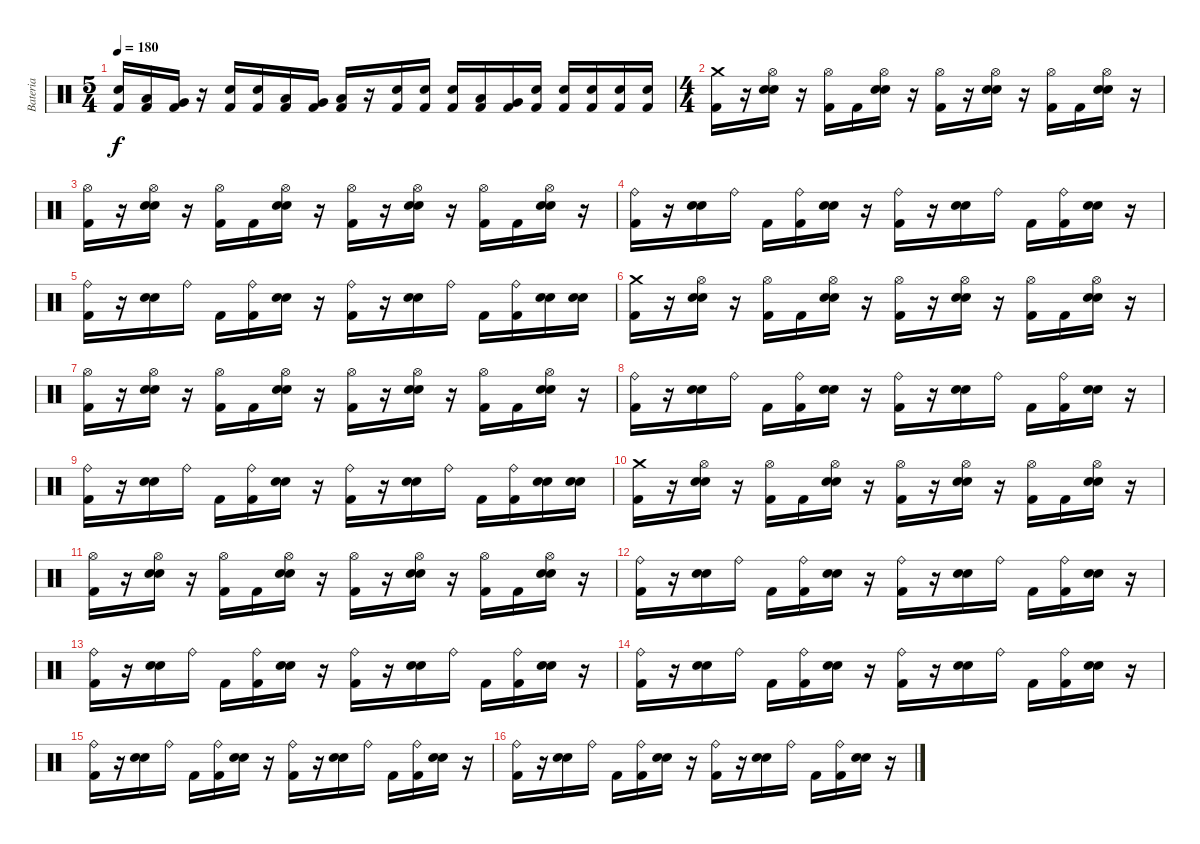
\track ("Bateria" "Bateria") {instrument percussion}
\staff {score}
\articulation defaults
\ts (5 4)
\tempo 180
\clef neutral
\ks c
("Electric Snare (hit)" "Kick (hit) 2").16{dy f} ("Low Tom (hit)" "Kick (hit) 2").16 ("Very Low Tom (hit)" "Kick (hit) 2").16 r.16 ("Electric Snare (hit)" "Kick (hit) 2").16 ("Electric Snare (hit)" "Kick (hit) 2").16 ("Low Tom (hit)" "Kick (hit) 2").16 ("Very Low Tom (hit)" "Kick (hit) 2").16 ("Low Floor Tom (hit)" "Kick (hit) 2").16 r.16 ("Electric Snare (hit)" "Kick (hit) 2").16 ("Electric Snare (hit)" "Kick (hit) 2").16 ("Electric Snare (hit)" "Kick (hit) 2").16 ("Low Tom (hit)" "Kick (hit) 2").16 ("Very Low Tom (hit)" "Kick (hit) 2").16 ("Electric Snare (hit)" "Kick (hit) 2").16 ("Electric Snare (hit)" "Kick (hit) 2").16 ("Electric Snare (hit)" "Kick (hit) 2").16 ("Electric Snare (hit)" "Kick (hit) 2").16 ("Electric Snare (hit)" "Kick (hit) 2").16 |
\ts (4 4)
("Crash medium (hit)" "Kick (hit) 2").16 r.16 ("Hi-Hat (open)" "Electric Snare (hit)" "Snare (hit) 2").16 r.16 ("Hi-Hat (open)" "Kick (hit) 2").16 "Kick (hit) 2".16 ("Hi-Hat (open)" "Electric Snare (hit)" "Snare (hit) 2").16 r.16 ("Hi-Hat (open)" "Kick (hit) 2").16 r.16 ("Hi-Hat (open)" "Electric Snare (hit)" "Snare (hit) 2").16 r.16 ("Hi-Hat (open)" "Kick (hit) 2").16 "Kick (hit) 2".16 ("Hi-Hat (open)" "Electric Snare (hit)" "Snare (hit) 2").16 r.16 |
("Hi-Hat (open)" "Kick (hit) 2").16 r.16 ("Hi-Hat (open)" "Electric Snare (hit)" "Snare (hit) 2").16 r.16 ("Hi-Hat (open)" "Kick (hit) 2").16 "Kick (hit) 2".16 ("Hi-Hat (open)" "Electric Snare (hit)" "Snare (hit) 2").16 r.16 ("Hi-Hat (open)" "Kick (hit) 2").16 r.16 ("Hi-Hat (open)" "Electric Snare (hit)" "Snare (hit) 2").16 r.16 ("Hi-Hat (open)" "Kick (hit) 2").16 "Kick (hit) 2".16 ("Hi-Hat (open)" "Electric Snare (hit)" "Snare (hit) 2").16 r.16 |
("Ride (bell)" "Kick (hit) 2").16 r.16 ("Electric Snare (hit)" "Snare (hit) 2").16 "Ride (bell)".16 "Kick (hit) 2".16 ("Ride (bell)" "Kick (hit) 2").16 ("Electric Snare (hit)" "Snare (hit) 2").16 r.16 ("Ride (bell)" "Kick (hit) 2").16 r.16 ("Electric Snare (hit)" "Snare (hit) 2").16 "Ride (bell)".16 "Kick (hit) 2".16 ("Ride (bell)" "Kick (hit) 2").16 ("Electric Snare (hit)" "Snare (hit) 2").16 r.16 |
("Ride (bell)" "Kick (hit) 2").16 r.16 ("Electric Snare (hit)" "Snare (hit) 2").16 "Ride (bell)".16 "Kick (hit) 2".16 ("Ride (bell)" "Kick (hit) 2").16 ("Electric Snare (hit)" "Snare (hit) 2").16 r.16 ("Ride (bell)" "Kick (hit) 2").16 r.16 ("Electric Snare (hit)" "Snare (hit) 2").16 "Ride (bell)".16 "Kick (hit) 2".16 ("Ride (bell)" "Kick (hit) 2").16 ("Electric Snare (hit)" "Snare (hit) 2").16 ("Electric Snare (hit)" "Snare (hit) 2").16 |
("Crash medium (hit)" "Kick (hit) 2").16 r.16 ("Hi-Hat (open)" "Electric Snare (hit)" "Snare (hit) 2").16 r.16 ("Hi-Hat (open)" "Kick (hit) 2").16 "Kick (hit) 2".16 ("Hi-Hat (open)" "Electric Snare (hit)" "Snare (hit) 2").16 r.16 ("Hi-Hat (open)" "Kick (hit) 2").16 r.16 ("Hi-Hat (open)" "Electric Snare (hit)" "Snare (hit) 2").16 r.16 ("Hi-Hat (open)" "Kick (hit) 2").16 "Kick (hit) 2".16 ("Hi-Hat (open)" "Electric Snare (hit)" "Snare (hit) 2").16 r.16 |
("Hi-Hat (open)" "Kick (hit) 2").16 r.16 ("Hi-Hat (open)" "Electric Snare (hit)" "Snare (hit) 2").16 r.16 ("Hi-Hat (open)" "Kick (hit) 2").16 "Kick (hit) 2".16 ("Hi-Hat (open)" "Electric Snare (hit)" "Snare (hit) 2").16 r.16 ("Hi-Hat (open)" "Kick (hit) 2").16 r.16 ("Hi-Hat (open)" "Electric Snare (hit)" "Snare (hit) 2").16 r.16 ("Hi-Hat (open)" "Kick (hit) 2").16 "Kick (hit) 2".16 ("Hi-Hat (open)" "Electric Snare (hit)" "Snare (hit) 2").16 r.16 |
("Ride (bell)" "Kick (hit) 2").16 r.16 ("Electric Snare (hit)" "Snare (hit) 2").16 "Ride (bell)".16 "Kick (hit) 2".16 ("Ride (bell)" "Kick (hit) 2").16 ("Electric Snare (hit)" "Snare (hit) 2").16 r.16 ("Ride (bell)" "Kick (hit) 2").16 r.16 ("Electric Snare (hit)" "Snare (hit) 2").16 "Ride (bell)".16 "Kick (hit) 2".16 ("Ride (bell)" "Kick (hit) 2").16 ("Electric Snare (hit)" "Snare (hit) 2").16 r.16 |
("Ride (bell)" "Kick (hit) 2").16 r.16 ("Electric Snare (hit)" "Snare (hit) 2").16 "Ride (bell)".16 "Kick (hit) 2".16 ("Ride (bell)" "Kick (hit) 2").16 ("Electric Snare (hit)" "Snare (hit) 2").16 r.16 ("Ride (bell)" "Kick (hit) 2").16 r.16 ("Electric Snare (hit)" "Snare (hit) 2").16 "Ride (bell)".16 "Kick (hit) 2".16 ("Ride (bell)" "Kick (hit) 2").16 ("Electric Snare (hit)" "Snare (hit) 2").16 ("Electric Snare (hit)" "Snare (hit) 2").16 |
("Crash medium (hit)" "Kick (hit) 2").16 r.16 ("Hi-Hat (open)" "Electric Snare (hit)" "Snare (hit) 2").16 r.16 ("Hi-Hat (open)" "Kick (hit) 2").16 "Kick (hit) 2".16 ("Hi-Hat (open)" "Electric Snare (hit)" "Snare (hit) 2").16 r.16 ("Hi-Hat (open)" "Kick (hit) 2").16 r.16 ("Hi-Hat (open)" "Electric Snare (hit)" "Snare (hit) 2").16 r.16 ("Hi-Hat (open)" "Kick (hit) 2").16 "Kick (hit) 2".16 ("Hi-Hat (open)" "Electric Snare (hit)" "Snare (hit) 2").16 r.16 |
("Hi-Hat (open)" "Kick (hit) 2").16 r.16 ("Hi-Hat (open)" "Electric Snare (hit)" "Snare (hit) 2").16 r.16 ("Hi-Hat (open)" "Kick (hit) 2").16 "Kick (hit) 2".16 ("Hi-Hat (open)" "Electric Snare (hit)" "Snare (hit) 2").16 r.16 ("Hi-Hat (open)" "Kick (hit) 2").16 r.16 ("Hi-Hat (open)" "Electric Snare (hit)" "Snare (hit) 2").16 r.16 ("Hi-Hat (open)" "Kick (hit) 2").16 "Kick (hit) 2".16 ("Hi-Hat (open)" "Electric Snare (hit)" "Snare (hit) 2").16 r.16 |
("Ride (bell)" "Kick (hit) 2").16 r.16 ("Electric Snare (hit)" "Snare (hit) 2").16 "Ride (bell)".16 "Kick (hit) 2".16 ("Ride (bell)" "Kick (hit) 2").16 ("Electric Snare (hit)" "Snare (hit) 2").16 r.16 ("Ride (bell)" "Kick (hit) 2").16 r.16 ("Electric Snare (hit)" "Snare (hit) 2").16 "Ride (bell)".16 "Kick (hit) 2".16 ("Ride (bell)" "Kick (hit) 2").16 ("Electric Snare (hit)" "Snare (hit) 2").16 r.16 |
("Ride (bell)" "Kick (hit) 2").16 r.16 ("Electric Snare (hit)" "Snare (hit) 2").16 "Ride (bell)".16 "Kick (hit) 2".16 ("Ride (bell)" "Kick (hit) 2").16 ("Electric Snare (hit)" "Snare (hit) 2").16 r.16 ("Ride (bell)" "Kick (hit) 2").16 r.16 ("Electric Snare (hit)" "Snare (hit) 2").16 "Ride (bell)".16 "Kick (hit) 2".16 ("Ride (bell)" "Kick (hit) 2").16 ("Electric Snare (hit)" "Snare (hit) 2").16 r.16 |
("Ride (bell)" "Kick (hit) 2").16 r.16 ("Electric Snare (hit)" "Snare (hit) 2").16 "Ride (bell)".16 "Kick (hit) 2".16 ("Ride (bell)" "Kick (hit) 2").16 ("Electric Snare (hit)" "Snare (hit) 2").16 r.16 ("Ride (bell)" "Kick (hit) 2").16 r.16 ("Electric Snare (hit)" "Snare (hit) 2").16 "Ride (bell)".16 "Kick (hit) 2".16 ("Ride (bell)" "Kick (hit) 2").16 ("Electric Snare (hit)" "Snare (hit) 2").16 r.16 |
("Ride (bell)" "Kick (hit) 2").16 r.16 ("Electric Snare (hit)" "Snare (hit) 2").16 "Ride (bell)".16 "Kick (hit) 2".16 ("Ride (bell)" "Kick (hit) 2").16 ("Electric Snare (hit)" "Snare (hit) 2").16 r.16 ("Ride (bell)" "Kick (hit) 2").16 r.16 ("Electric Snare (hit)" "Snare (hit) 2").16 "Ride (bell)".16 "Kick (hit) 2".16 ("Ride (bell)" "Kick (hit) 2").16 ("Electric Snare (hit)" "Snare (hit) 2").16 r.16 |
("Ride (bell)" "Kick (hit) 2").16 r.16 ("Electric Snare (hit)" "Snare (hit) 2").16 "Ride (bell)".16 "Kick (hit) 2".16 ("Ride (bell)" "Kick (hit) 2").16 ("Electric Snare (hit)" "Snare (hit) 2").16 r.16 ("Ride (bell)" "Kick (hit) 2").16 r.16 ("Electric Snare (hit)" "Snare (hit) 2").16 "Ride (bell)".16 "Kick (hit) 2".16 ("Ride (bell)" "Kick (hit) 2").16 ("Electric Snare (hit)" "Snare (hit) 2").16 r.16
